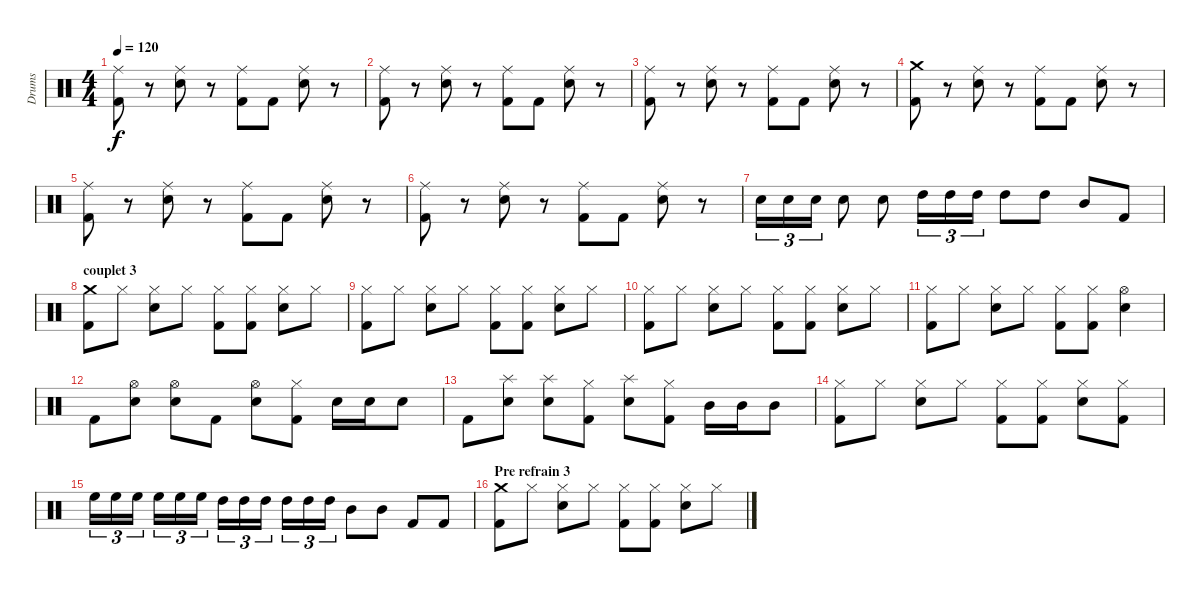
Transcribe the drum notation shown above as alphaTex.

\track ("Drums" "Drums") {instrument percussion}
\staff {score}
\articulation defaults
\ts (4 4)
\tempo 120
\clef neutral
\ks c
("Ride (middle)" "Kick (hit) 2").8{dy f} r.8 ("Ride (middle)" "Snare (hit) 2").8 r.8 ("Ride (middle)" "Kick (hit) 2").8 "Kick (hit) 2".8 ("Ride (middle)" "Snare (hit) 2").8 r.8 |
("Ride (middle)" "Kick (hit) 2").8 r.8 ("Ride (middle)" "Snare (hit) 2").8 r.8 ("Ride (middle)" "Kick (hit) 2").8 "Kick (hit) 2".8 ("Ride (middle)" "Snare (hit) 2").8 r.8 |
("Ride (middle)" "Kick (hit) 2").8 r.8 ("Ride (middle)" "Snare (hit) 2").8 r.8 ("Ride (middle)" "Kick (hit) 2").8 "Kick (hit) 2".8 ("Ride (middle)" "Snare (hit) 2").8 r.8 |
("Crash medium (hit)" "Kick (hit) 2").8 r.8 ("Ride (middle)" "Snare (hit) 2").8 r.8 ("Ride (middle)" "Kick (hit) 2").8 "Kick (hit) 2".8 ("Ride (middle)" "Snare (hit) 2").8 r.8 |
("Ride (middle)" "Kick (hit) 2").8 r.8 ("Ride (middle)" "Snare (hit) 2").8 r.8 ("Ride (middle)" "Kick (hit) 2").8 "Kick (hit) 2".8 ("Ride (middle)" "Snare (hit) 2").8 r.8 |
("Ride (middle)" "Kick (hit) 2").8 r.8 ("Ride (middle)" "Snare (hit) 2").8 r.8 ("Ride (middle)" "Kick (hit) 2").8 "Kick (hit) 2".8 ("Ride (middle)" "Snare (hit) 2").8 r.8 |
"Snare (hit) 2".16{tu (3 2)} "Snare (hit) 2".16{tu (3 2)} "Snare (hit) 2".16{tu (3 2)} "Snare (hit) 2".8 "Snare (hit) 2".8 "High Tom (hit)".16{tu (3 2)} "High Tom (hit)".16{tu (3 2)} "High Tom (hit)".16{tu (3 2)} "High Tom (hit)".8 "High Tom (hit)".8 "Mid Tom (hit)".8 "Kick (hit) 2".8 |
\section ("" "couplet 3")
("Crash medium (hit)" "Kick (hit) 2").8 "Hi-Hat (closed)".8 ("Hi-Hat (closed)" "Snare (hit) 2").8 "Hi-Hat (closed)".8 ("Hi-Hat (closed)" "Kick (hit) 2").8 ("Hi-Hat (closed)" "Kick (hit) 2").8 ("Hi-Hat (closed)" "Snare (hit) 2").8 "Hi-Hat (closed)".8 |
("Hi-Hat (closed)" "Kick (hit) 2").8 "Hi-Hat (closed)".8 ("Hi-Hat (closed)" "Snare (hit) 2").8 "Hi-Hat (closed)".8 ("Hi-Hat (closed)" "Kick (hit) 2").8 ("Hi-Hat (closed)" "Kick (hit) 2").8 ("Hi-Hat (closed)" "Snare (hit) 2").8 "Hi-Hat (closed)".8 |
("Hi-Hat (closed)" "Kick (hit) 2").8 "Hi-Hat (closed)".8 ("Hi-Hat (closed)" "Snare (hit) 2").8 "Hi-Hat (closed)".8 ("Hi-Hat (closed)" "Kick (hit) 2").8 ("Hi-Hat (closed)" "Kick (hit) 2").8 ("Hi-Hat (closed)" "Snare (hit) 2").8 "Hi-Hat (closed)".8 |
("Hi-Hat (closed)" "Kick (hit) 2").8 "Hi-Hat (closed)".8 ("Hi-Hat (closed)" "Snare (hit) 2").8 "Hi-Hat (closed)".8 ("Hi-Hat (closed)" "Kick (hit) 2").8 ("Hi-Hat (closed)" "Kick (hit) 2").8 ("Hi-Hat (open)" "Snare (hit) 2").4 |
"Kick (hit) 2".8 ("Hi-Hat (open)" "Snare (hit) 2").8 ("Hi-Hat (open)" "Snare (hit) 2").8 "Kick (hit) 2".8 ("Hi-Hat (open)" "Snare (hit) 2").8 ("Hi-Hat (closed)" "Kick (hit) 2").8 "Snare (hit) 2".16 "Snare (hit) 2".16 "Snare (hit) 2".8 |
"Kick (hit) 2".8 ("Splash (hit)" "Snare (hit) 2").8 ("Splash (hit)" "Snare (hit) 2").8 ("Hi-Hat (closed)" "Kick (hit) 2").8 ("Splash (hit)" "Snare (hit) 2").8 ("Hi-Hat (closed)" "Kick (hit) 2").8 "Mid Tom (hit)".16 "Mid Tom (hit)".16 "Mid Tom (hit)".8 |
("Hi-Hat (closed)" "Kick (hit) 2").8 "Hi-Hat (closed)".8 ("Hi-Hat (closed)" "Snare (hit) 2").8 "Hi-Hat (closed)".8 ("Hi-Hat (closed)" "Kick (hit) 2").8 ("Hi-Hat (closed)" "Kick (hit) 2").8 ("Hi-Hat (closed)" "Snare (hit) 2").8 ("Hi-Hat (closed)" "Kick (hit) 2").8 |
"High Floor Tom (hit)".16{tu (3 2)} "High Floor Tom (hit)".16{tu (3 2)} "High Floor Tom (hit)".16{tu (3 2)} "High Floor Tom (hit)".16{tu (3 2)} "High Floor Tom (hit)".16{tu (3 2)} "High Floor Tom (hit)".16{tu (3 2)} "High Tom (hit)".16{tu (3 2)} "High Tom (hit)".16{tu (3 2)} "High Tom (hit)".16{tu (3 2)} "High Tom (hit)".16{tu (3 2)} "High Tom (hit)".16{tu (3 2)} "High Tom (hit)".16{tu (3 2)} "Mid Tom (hit)".8 "Mid Tom (hit)".8 "Kick (hit) 2".8 "Kick (hit) 2".8 |
\section ("" "Pre refrain 3")
("Crash medium (hit)" "Kick (hit) 2").8 "Hi-Hat (closed)".8 ("Hi-Hat (closed)" "Snare (hit) 2").8 "Hi-Hat (closed)".8 ("Hi-Hat (closed)" "Kick (hit) 2").8 ("Hi-Hat (closed)" "Kick (hit) 2").8 ("Hi-Hat (closed)" "Snare (hit) 2").8 "Hi-Hat (closed)".8
